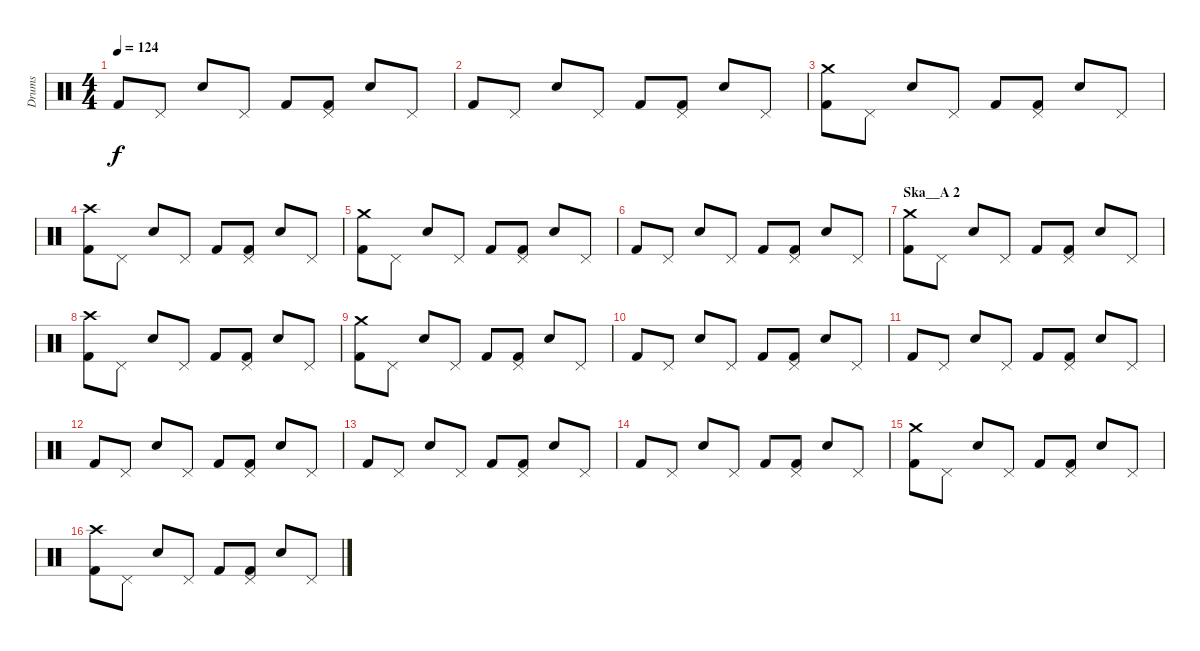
\track ("Drums" "Drums") {instrument percussion}
\staff {score}
\articulation defaults
\ts (4 4)
\tempo 124
\clef neutral
\ks c "Kick (hit) 2".8{dy f} "Pedal Hi-Hat (hit)".8 "Snare (hit) 2".8 "Pedal Hi-Hat (hit)".8 "Kick (hit) 2".8
("Pedal Hi-Hat (hit)" "Kick (hit) 2").8 "Snare (hit) 2".8 "Pedal Hi-Hat (hit)".8 |
"Kick (hit) 2".8 "Pedal Hi-Hat (hit)".8 "Snare (hit) 2".8 "Pedal Hi-Hat (hit)".8 "Kick (hit) 2".8 ("Pedal Hi-Hat (hit)" "Kick (hit) 2").8 "Snare (hit) 2".8 "Pedal Hi-Hat (hit)".8 |
("Crash medium (hit)" "Kick (hit) 2").8 "Pedal Hi-Hat (hit)".8 "Snare (hit) 2".8 "Pedal Hi-Hat (hit)".8 "Kick (hit) 2".8 ("Pedal Hi-Hat (hit)" "Kick (hit) 2").8 "Snare (hit) 2".8 "Pedal Hi-Hat (hit)".8 |
("Crash high (hit)" "Kick (hit) 2").8 "Pedal Hi-Hat (hit)".8 "Snare (hit) 2".8 "Pedal Hi-Hat (hit)".8 "Kick (hit) 2".8 ("Pedal Hi-Hat (hit)" "Kick (hit) 2").8 "Snare (hit) 2".8 "Pedal Hi-Hat (hit)".8 |
("Crash medium (hit)" "Kick (hit) 2").8 "Pedal Hi-Hat (hit)".8 "Snare (hit) 2".8 "Pedal Hi-Hat (hit)".8 "Kick (hit) 2".8 ("Pedal Hi-Hat (hit)" "Kick (hit) 2").8 "Snare (hit) 2".8 "Pedal Hi-Hat (hit)".8 |
"Kick (hit) 2".8 "Pedal Hi-Hat (hit)".8 "Snare (hit) 2".8 "Pedal Hi-Hat (hit)".8 "Kick (hit) 2".8 ("Pedal Hi-Hat (hit)" "Kick (hit) 2").8 "Snare (hit) 2".8 "Pedal Hi-Hat (hit)".8 |
\section ("" "Ska__A 2")
("Crash medium (hit)" "Kick (hit) 2").8 "Pedal Hi-Hat (hit)".8 "Snare (hit) 2".8 "Pedal Hi-Hat (hit)".8 "Kick (hit) 2".8 ("Pedal Hi-Hat (hit)" "Kick (hit) 2").8 "Snare (hit) 2".8 "Pedal Hi-Hat (hit)".8 |
("Crash high (hit)" "Kick (hit) 2").8 "Pedal Hi-Hat (hit)".8 "Snare (hit) 2".8 "Pedal Hi-Hat (hit)".8 "Kick (hit) 2".8 ("Pedal Hi-Hat (hit)" "Kick (hit) 2").8 "Snare (hit) 2".8 "Pedal Hi-Hat (hit)".8 |
("Crash medium (hit)" "Kick (hit) 2").8 "Pedal Hi-Hat (hit)".8 "Snare (hit) 2".8 "Pedal Hi-Hat (hit)".8 "Kick (hit) 2".8 ("Pedal Hi-Hat (hit)" "Kick (hit) 2").8 "Snare (hit) 2".8 "Pedal Hi-Hat (hit)".8 |
"Kick (hit) 2".8 "Pedal Hi-Hat (hit)".8 "Snare (hit) 2".8 "Pedal Hi-Hat (hit)".8 "Kick (hit) 2".8 ("Pedal Hi-Hat (hit)" "Kick (hit) 2").8 "Snare (hit) 2".8 "Pedal Hi-Hat (hit)".8 |
"Kick (hit) 2".8 "Pedal Hi-Hat (hit)".8 "Snare (hit) 2".8 "Pedal Hi-Hat (hit)".8 "Kick (hit) 2".8 ("Pedal Hi-Hat (hit)" "Kick (hit) 2").8 "Snare (hit) 2".8 "Pedal Hi-Hat (hit)".8 |
"Kick (hit) 2".8 "Pedal Hi-Hat (hit)".8 "Snare (hit) 2".8 "Pedal Hi-Hat (hit)".8 "Kick (hit) 2".8 ("Pedal Hi-Hat (hit)" "Kick (hit) 2").8 "Snare (hit) 2".8 "Pedal Hi-Hat (hit)".8 |
"Kick (hit) 2".8 "Pedal Hi-Hat (hit)".8 "Snare (hit) 2".8 "Pedal Hi-Hat (hit)".8 "Kick (hit) 2".8 ("Pedal Hi-Hat (hit)" "Kick (hit) 2").8 "Snare (hit) 2".8 "Pedal Hi-Hat (hit)".8 |
"Kick (hit) 2".8 "Pedal Hi-Hat (hit)".8 "Snare (hit) 2".8 "Pedal Hi-Hat (hit)".8 "Kick (hit) 2".8 ("Pedal Hi-Hat (hit)" "Kick (hit) 2").8 "Snare (hit) 2".8 "Pedal Hi-Hat (hit)".8 |
("Crash medium (hit)" "Kick (hit) 2").8 "Pedal Hi-Hat (hit)".8 "Snare (hit) 2".8 "Pedal Hi-Hat (hit)".8 "Kick (hit) 2".8 ("Pedal Hi-Hat (hit)" "Kick (hit) 2").8 "Snare (hit) 2".8 "Pedal Hi-Hat (hit)".8 |
("Crash high (hit)" "Kick (hit) 2").8 "Pedal Hi-Hat (hit)".8 "Snare (hit) 2".8 "Pedal Hi-Hat (hit)".8 "Kick (hit) 2".8 ("Pedal Hi-Hat (hit)" "Kick (hit) 2").8 "Snare (hit) 2".8 "Pedal Hi-Hat (hit)".8
